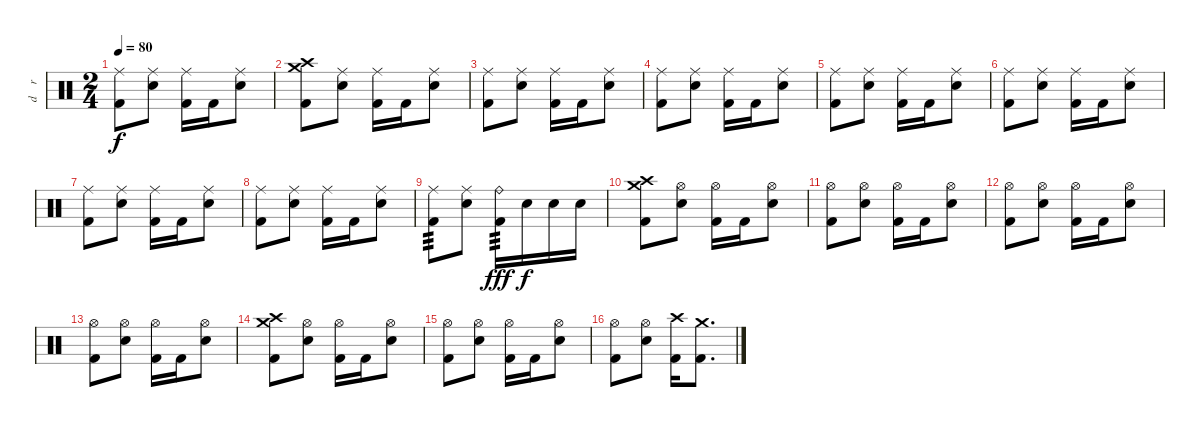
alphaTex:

\track ("d    r     u    m    s" "d    r    ") {instrument percussion}
\staff {score}
\articulation defaults
\ts (2 4)
\tempo 80
\clef neutral
\ks c
("Ride (middle)" "Kick (hit) 2").8{dy f} ("Ride (middle)" "Electric Snare (hit)").8 ("Ride (middle)" "Kick (hit) 2").16 "Kick (hit) 2".16 ("Ride (middle)" "Electric Snare (hit)").8 |
("Crash high (hit)" "Crash medium (hit)" "Kick (hit) 2").8 ("Ride (middle)" "Electric Snare (hit)").8 ("Ride (middle)" "Kick (hit) 2").16 "Kick (hit) 2".16 ("Ride (middle)" "Electric Snare (hit)").8 |
("Ride (middle)" "Kick (hit) 2").8 ("Ride (middle)" "Electric Snare (hit)").8 ("Ride (middle)" "Kick (hit) 2").16 "Kick (hit) 2".16 ("Ride (middle)" "Electric Snare (hit)").8 |
("Ride (middle)" "Kick (hit) 2").8 ("Ride (middle)" "Electric Snare (hit)").8 ("Ride (middle)" "Kick (hit) 2").16 "Kick (hit) 2".16 ("Ride (middle)" "Electric Snare (hit)").8 |
("Ride (middle)" "Kick (hit) 2").8 ("Ride (middle)" "Electric Snare (hit)").8 ("Ride (middle)" "Kick (hit) 2").16 "Kick (hit) 2".16 ("Ride (middle)" "Electric Snare (hit)").8 |
("Ride (middle)" "Kick (hit) 2").8 ("Ride (middle)" "Electric Snare (hit)").8 ("Ride (middle)" "Kick (hit) 2").16 "Kick (hit) 2".16 ("Ride (middle)" "Electric Snare (hit)").8 |
("Ride (middle)" "Kick (hit) 2").8 ("Ride (middle)" "Electric Snare (hit)").8 ("Ride (middle)" "Kick (hit) 2").16 "Kick (hit) 2".16 ("Ride (middle)" "Electric Snare (hit)").8 |
("Ride (middle)" "Kick (hit) 2").8 ("Ride (middle)" "Electric Snare (hit)").8 ("Ride (middle)" "Kick (hit) 2").16 "Kick (hit) 2".16 ("Ride (middle)" "Electric Snare (hit)").8 |
("Ride (middle)" "Kick (hit) 2").8{tp 3} ("Ride (middle)" "Electric Snare (hit)").8 ("Ride (bell)" "Kick (hit) 2").16{tp 3 dy fff} "Electric Snare (hit)".16{dy f} "Electric Snare (hit)".16 "Electric Snare (hit)".16 |
("Crash high (hit)" "Crash medium (hit)" "Kick (hit) 2").8 ("Hi-Hat (open)" "Electric Snare (hit)").8 ("Hi-Hat (open)" "Kick (hit) 2").16 "Kick (hit) 2".16 ("Hi-Hat (open)" "Electric Snare (hit)").8 |
("Hi-Hat (open)" "Kick (hit) 2").8 ("Hi-Hat (open)" "Electric Snare (hit)").8 ("Hi-Hat (open)" "Kick (hit) 2").16 "Kick (hit) 2".16 ("Hi-Hat (open)" "Electric Snare (hit)").8 |
("Hi-Hat (open)" "Kick (hit) 2").8 ("Hi-Hat (open)" "Electric Snare (hit)").8 ("Hi-Hat (open)" "Kick (hit) 2").16 "Kick (hit) 2".16 ("Hi-Hat (open)" "Electric Snare (hit)").8 |
("Hi-Hat (open)" "Kick (hit) 2").8 ("Hi-Hat (open)" "Electric Snare (hit)").8 ("Hi-Hat (open)" "Kick (hit) 2").16 "Kick (hit) 2".16 ("Hi-Hat (open)" "Electric Snare (hit)").8 |
("Crash high (hit)" "Crash medium (hit)" "Kick (hit) 2").8 ("Hi-Hat (open)" "Electric Snare (hit)").8 ("Hi-Hat (open)" "Kick (hit) 2").16 "Kick (hit) 2".16 ("Hi-Hat (open)" "Electric Snare (hit)").8 |
("Hi-Hat (open)" "Kick (hit) 2").8 ("Hi-Hat (open)" "Electric Snare (hit)").8 ("Hi-Hat (open)" "Kick (hit) 2").16 "Kick (hit) 2".16 ("Hi-Hat (open)" "Electric Snare (hit)").8 |
("Hi-Hat (open)" "Kick (hit) 2").8 ("Hi-Hat (open)" "Electric Snare (hit)").8 ("Crash high (hit)" "Kick (hit) 2").16 ("Crash medium (hit)" "Kick (hit) 2").8{d}
